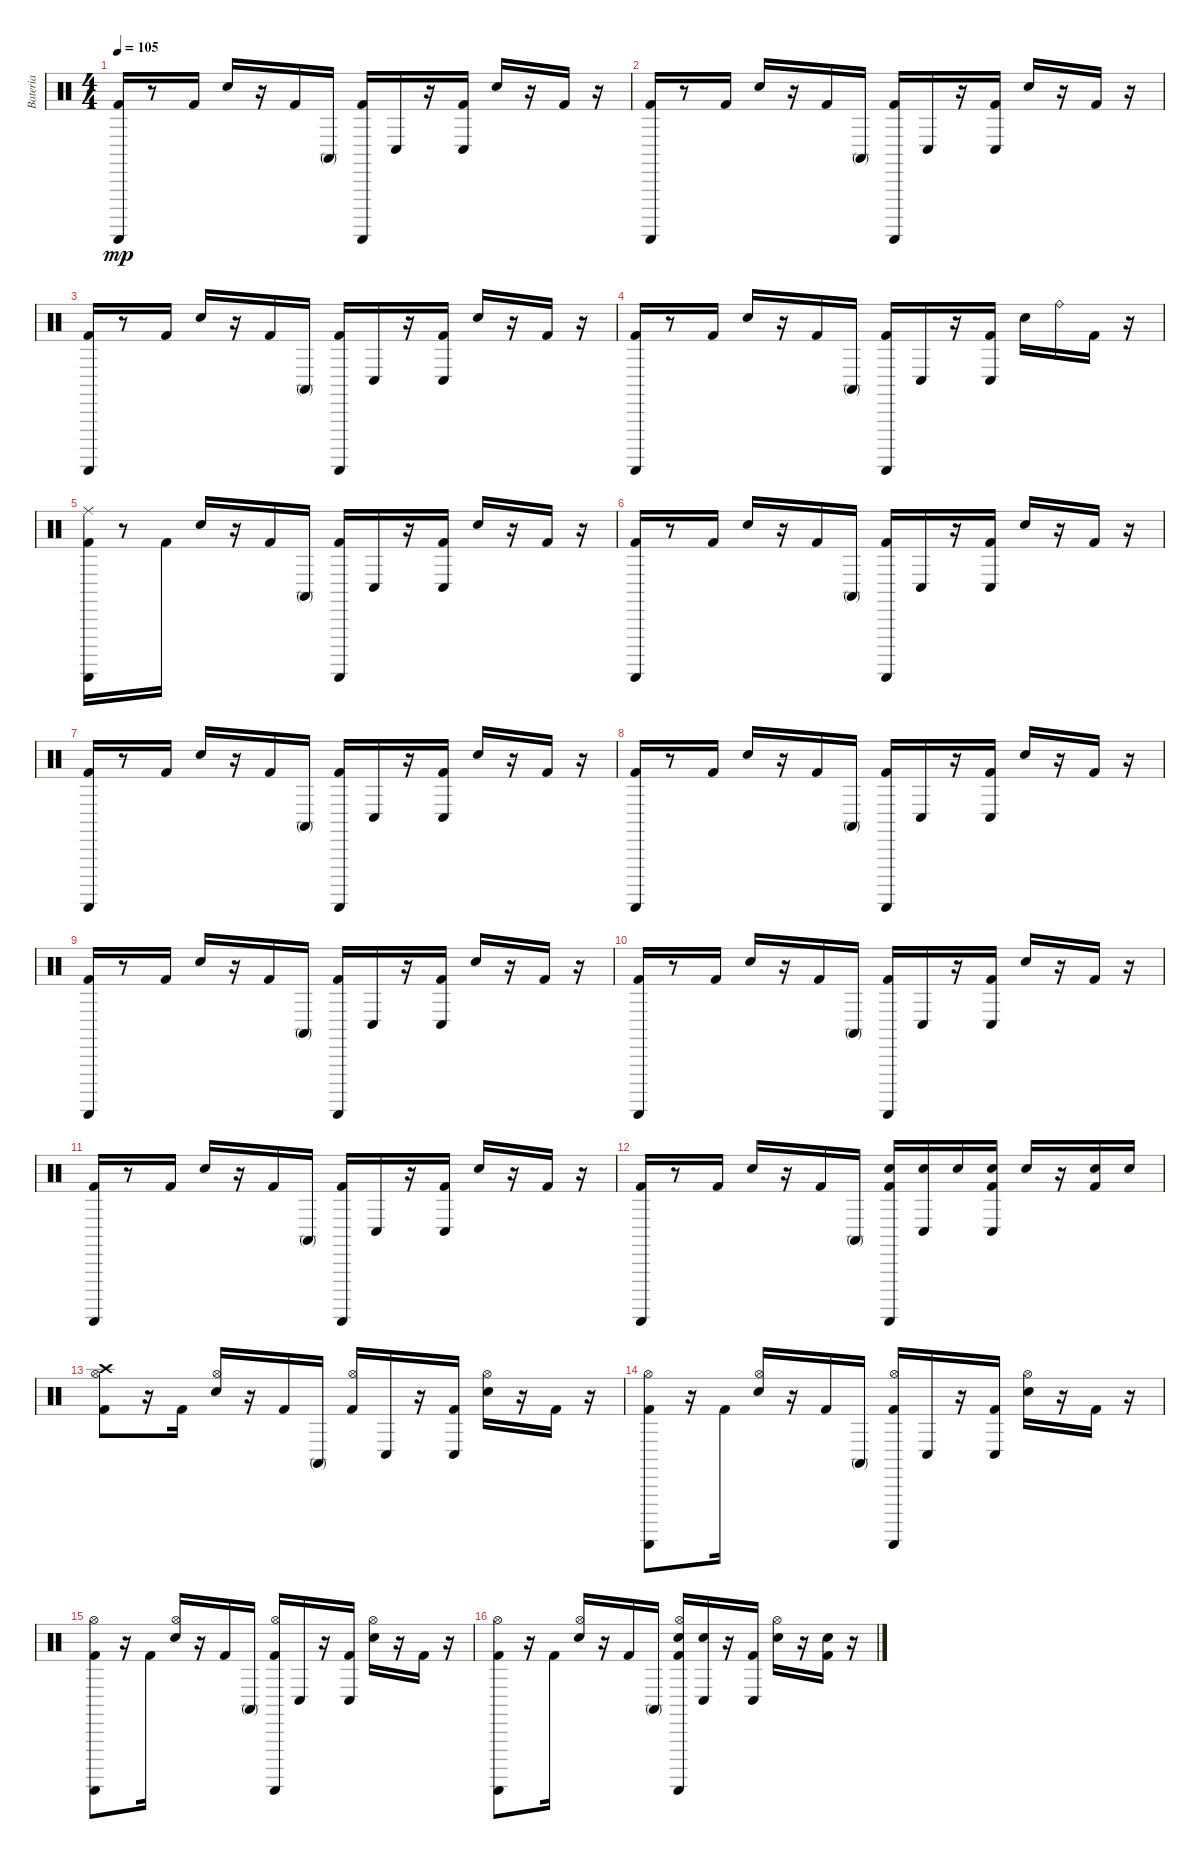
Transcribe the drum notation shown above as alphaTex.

\track ("Bateria" "Bateria") {instrument percussion}
\staff {score}
\articulation defaults
\ts (4 4)
\tempo 105
\clef neutral
\ks c
("Kick (hit) 2" "Guiro (scrap-return)").16{dy mp} r.8 "Kick (hit) 2".16 "Electric Snare (hit)".16 r.16 "Kick (hit) 2".16 "Conga high (mute)".16 ("Kick (hit) 2" "Guiro (scrap-return)").16 "Conga low (hit)".16 r.16 ("Conga low (hit)" "Kick (hit) 2").16 "Electric Snare (hit)".16 r.16 "Kick (hit) 2".16 r.16 |
("Kick (hit) 2" "Guiro (scrap-return)").16 r.8 "Kick (hit) 2".16 "Electric Snare (hit)".16 r.16 "Kick (hit) 2".16 "Conga high (mute)".16 ("Kick (hit) 2" "Guiro (scrap-return)").16 "Conga low (hit)".16 r.16 ("Conga low (hit)" "Kick (hit) 2").16 "Electric Snare (hit)".16 r.16 "Kick (hit) 2".16 r.16 |
("Kick (hit) 2" "Guiro (scrap-return)").16 r.8 "Kick (hit) 2".16 "Electric Snare (hit)".16 r.16 "Kick (hit) 2".16 "Conga high (mute)".16 ("Kick (hit) 2" "Guiro (scrap-return)").16 "Conga low (hit)".16 r.16 ("Conga low (hit)" "Kick (hit) 2").16 "Electric Snare (hit)".16 r.16 "Kick (hit) 2".16 r.16 |
("Kick (hit) 2" "Guiro (scrap-return)").16 r.8 "Kick (hit) 2".16 "Electric Snare (hit)".16 r.16 "Kick (hit) 2".16 "Conga high (mute)".16 ("Kick (hit) 2" "Guiro (scrap-return)").16 "Conga low (hit)".16 r.16 ("Conga low (hit)" "Kick (hit) 2").16 "Electric Snare (hit)".16 "Ride (bell)".16 "Kick (hit) 2".16 r.16 |
("Ride (middle)" "Kick (hit) 2" "Guiro (scrap-return)").16 r.8 "Kick (hit) 2".16 "Electric Snare (hit)".16 r.16 "Kick (hit) 2".16 "Conga high (mute)".16 ("Kick (hit) 2" "Guiro (scrap-return)").16 "Conga low (hit)".16 r.16 ("Conga low (hit)" "Kick (hit) 2").16 "Electric Snare (hit)".16 r.16 "Kick (hit) 2".16 r.16 |
("Kick (hit) 2" "Guiro (scrap-return)").16 r.8 "Kick (hit) 2".16 "Electric Snare (hit)".16 r.16 "Kick (hit) 2".16 "Conga high (mute)".16 ("Kick (hit) 2" "Guiro (scrap-return)").16 "Conga low (hit)".16 r.16 ("Conga low (hit)" "Kick (hit) 2").16 "Electric Snare (hit)".16 r.16 "Kick (hit) 2".16 r.16 |
("Kick (hit) 2" "Guiro (scrap-return)").16 r.8 "Kick (hit) 2".16 "Electric Snare (hit)".16 r.16 "Kick (hit) 2".16 "Conga high (mute)".16 ("Kick (hit) 2" "Guiro (scrap-return)").16 "Conga low (hit)".16 r.16 ("Conga low (hit)" "Kick (hit) 2").16 "Electric Snare (hit)".16 r.16 "Kick (hit) 2".16 r.16 |
("Kick (hit) 2" "Guiro (scrap-return)").16 r.8 "Kick (hit) 2".16 "Electric Snare (hit)".16 r.16 "Kick (hit) 2".16 "Conga high (mute)".16 ("Kick (hit) 2" "Guiro (scrap-return)").16 "Conga low (hit)".16 r.16 ("Conga low (hit)" "Kick (hit) 2").16 "Electric Snare (hit)".16 r.16 "Kick (hit) 2".16 r.16 |
("Kick (hit) 2" "Guiro (scrap-return)").16 r.8 "Kick (hit) 2".16 "Electric Snare (hit)".16 r.16 "Kick (hit) 2".16 "Conga high (mute)".16 ("Kick (hit) 2" "Guiro (scrap-return)").16 "Conga low (hit)".16 r.16 ("Conga low (hit)" "Kick (hit) 2").16 "Electric Snare (hit)".16 r.16 "Kick (hit) 2".16 r.16 |
("Kick (hit) 2" "Guiro (scrap-return)").16 r.8 "Kick (hit) 2".16 "Electric Snare (hit)".16 r.16 "Kick (hit) 2".16 "Conga high (mute)".16 ("Kick (hit) 2" "Guiro (scrap-return)").16 "Conga low (hit)".16 r.16 ("Conga low (hit)" "Kick (hit) 2").16 "Electric Snare (hit)".16 r.16 "Kick (hit) 2".16 r.16 |
("Kick (hit) 2" "Guiro (scrap-return)").16 r.8 "Kick (hit) 2".16 "Electric Snare (hit)".16 r.16 "Kick (hit) 2".16 "Conga high (mute)".16 ("Kick (hit) 2" "Guiro (scrap-return)").16 "Conga low (hit)".16 r.16 ("Conga low (hit)" "Kick (hit) 2").16 "Electric Snare (hit)".16 r.16 "Kick (hit) 2".16 r.16 |
("Kick (hit) 2" "Guiro (scrap-return)").16 r.8 "Kick (hit) 2".16 "Electric Snare (hit)".16 r.16 "Kick (hit) 2".16 "Conga high (mute)".16 ("Kick (hit) 2" "Guiro (scrap-return)" "Electric Snare (hit)").16 ("Conga low (hit)" "Electric Snare (hit)").16 "Electric Snare (hit)".16 ("Conga low (hit)" "Kick (hit) 2" "Electric Snare (hit)").16 "Electric Snare (hit)".16 r.16 ("Kick (hit) 2" "Electric Snare (hit)").16 "Electric Snare (hit)".16 |
("Kick (hit) 2" "Crash high (hit)" "Hi-Hat (open)").8 r.16 "Kick (hit) 2".16 ("Electric Snare (hit)" "Hi-Hat (open)").16 r.16 "Kick (hit) 2".16 "Conga high (mute)".16 ("Kick (hit) 2" "Hi-Hat (open)").16 "Conga low (hit)".16 r.16 ("Conga low (hit)" "Kick (hit) 2").16 ("Electric Snare (hit)" "Hi-Hat (open)").16 r.16 "Kick (hit) 2".16 r.16 |
("Kick (hit) 2" "Guiro (scrap-return)" "Hi-Hat (open)").8 r.16 "Kick (hit) 2".16 ("Electric Snare (hit)" "Hi-Hat (open)").16 r.16 "Kick (hit) 2".16 "Conga high (mute)".16 ("Kick (hit) 2" "Guiro (scrap-return)" "Hi-Hat (open)").16 "Conga low (hit)".16 r.16 ("Conga low (hit)" "Kick (hit) 2").16 ("Electric Snare (hit)" "Hi-Hat (open)").16 r.16 "Kick (hit) 2".16 r.16 |
("Kick (hit) 2" "Guiro (scrap-return)" "Hi-Hat (open)").8 r.16 "Kick (hit) 2".16 ("Electric Snare (hit)" "Hi-Hat (open)").16 r.16 "Kick (hit) 2".16 "Conga high (mute)".16 ("Kick (hit) 2" "Guiro (scrap-return)" "Hi-Hat (open)").16 "Conga low (hit)".16 r.16 ("Conga low (hit)" "Kick (hit) 2").16 ("Electric Snare (hit)" "Hi-Hat (open)").16 r.16 "Kick (hit) 2".16 r.16 |
("Kick (hit) 2" "Guiro (scrap-return)" "Hi-Hat (open)").8 r.16 "Kick (hit) 2".16 ("Electric Snare (hit)" "Hi-Hat (open)").16 r.16 "Kick (hit) 2".16 "Conga high (mute)".16 ("Kick (hit) 2" "Guiro (scrap-return)" "Hi-Hat (open)" "Electric Snare (hit)").16 ("Conga low (hit)" "Electric Snare (hit)").16 r.16 ("Conga low (hit)" "Kick (hit) 2").16 ("Electric Snare (hit)" "Hi-Hat (open)").16 r.16 ("Kick (hit) 2" "Electric Snare (hit)").16 r.16
